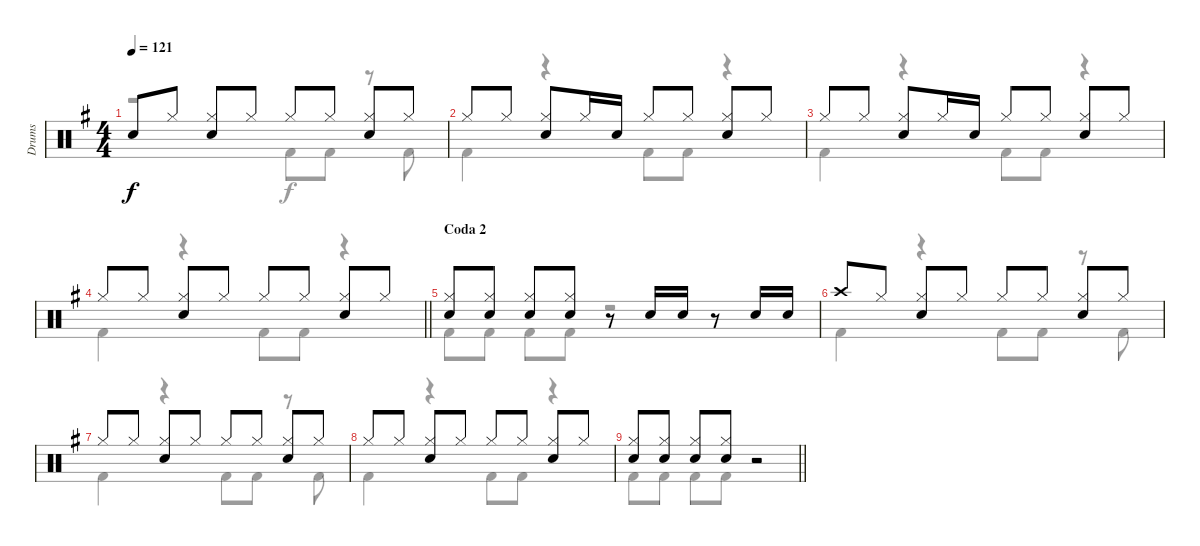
\track ("Drums" "Drums") {instrument percussion}
\staff {score}
\articulation defaults
\voice
\ts (4 4)
\tempo 121
\clef neutral
\ks g "Snare (hit)"{t}.8{dy f} "Hi-Hat (closed)".8
("Hi-Hat (closed)" "Snare (hit) 2").8 "Hi-Hat (closed)".8 "Hi-Hat (closed)".8 "Hi-Hat (closed)".8 ("Hi-Hat (closed)" "Snare (hit) 2").8 "Hi-Hat (closed)".8 |
"Hi-Hat (closed)".8 "Hi-Hat (closed)".8 ("Hi-Hat (closed)" "Snare (hit) 2").8 "Hi-Hat (closed)".16 "Snare (hit) 2".16 "Hi-Hat (closed)".8 "Hi-Hat (closed)".8 ("Hi-Hat (closed)" "Snare (hit) 2").8 "Hi-Hat (closed)".8 |
"Hi-Hat (closed)".8 "Hi-Hat (closed)".8 ("Hi-Hat (closed)" "Snare (hit) 2").8 "Hi-Hat (closed)".16 "Snare (hit) 2".16 "Hi-Hat (closed)".8 "Hi-Hat (closed)".8 ("Hi-Hat (closed)" "Snare (hit) 2").8 "Hi-Hat (closed)".8 |
\barLineRight lightlight "Hi-Hat (closed)".8 "Hi-Hat (closed)".8
("Hi-Hat (closed)" "Snare (hit) 2").8 "Hi-Hat (closed)".8 "Hi-Hat (closed)".8 "Hi-Hat (closed)".8 ("Hi-Hat (closed)" "Snare (hit) 2").8 "Hi-Hat (closed)".8 |
\section ("" "Coda 2")
("Hi-Hat (closed)" "Snare (hit) 2").8 ("Hi-Hat (closed)" "Snare (hit) 2").8 ("Hi-Hat (closed)" "Snare (hit) 2").8 ("Hi-Hat (closed)" "Snare (hit) 2").8 r.8 "Snare (hit) 2".16 "Snare (hit) 2".16 r.8 "Snare (hit) 2".16 "Snare (hit) 2".16 |
"Crash high (hit)".8 "Hi-Hat (closed)".8 ("Hi-Hat (closed)" "Snare (hit) 2").8 "Hi-Hat (closed)".8 "Hi-Hat (closed)".8 "Hi-Hat (closed)".8 ("Hi-Hat (closed)" "Snare (hit) 2").8 "Hi-Hat (closed)".8 |
"Hi-Hat (closed)".8 "Hi-Hat (closed)".8 ("Hi-Hat (closed)" "Snare (hit) 2").8 "Hi-Hat (closed)".8 "Hi-Hat (closed)".8 "Hi-Hat (closed)".8 ("Hi-Hat (closed)" "Snare (hit) 2").8 "Hi-Hat (closed)".8 |
"Hi-Hat (closed)".8 "Hi-Hat (closed)".8 ("Hi-Hat (closed)" "Snare (hit) 2").8 "Hi-Hat (closed)".8 "Hi-Hat (closed)".8 "Hi-Hat (closed)".8 ("Hi-Hat (closed)" "Snare (hit) 2").8 "Hi-Hat (closed)".8 |
\barLineRight lightlight
("Hi-Hat (closed)" "Snare (hit) 2").8 ("Hi-Hat (closed)" "Snare (hit) 2").8 ("Hi-Hat (closed)" "Snare (hit) 2").8 ("Hi-Hat (closed)" "Snare (hit) 2").8 r.2
\voice
\clef neutral
\ottava regular
\simile none
\ks g
r.2{dy f} "Kick (hit) 2".8 "Kick (hit) 2".8 r.8 "Kick (hit) 2".8 |
"Kick (hit) 2".4 r.4 "Kick (hit) 2".8 "Kick (hit) 2".8 r.4 |
"Kick (hit) 2".4 r.4 "Kick (hit) 2".8 "Kick (hit) 2".8 r.4 |
\barLineRight lightlight "Kick (hit) 2".4
r.4 "Kick (hit) 2".8 "Kick (hit) 2".8 r.4 |
"Kick (hit) 2".8 "Kick (hit) 2".8 "Kick (hit) 2".8 "Kick (hit) 2".8 r.2 |
"Kick (hit) 2".4 r.4 "Kick (hit) 2".8 "Kick (hit) 2".8 r.8 "Kick (hit) 2".8 |
"Kick (hit) 2".4 r.4 "Kick (hit) 2".8 "Kick (hit) 2".8 r.8 "Kick (hit) 2".8 |
"Kick (hit) 2".4 r.4 "Kick (hit) 2".8 "Kick (hit) 2".8 r.4 |
\barLineRight lightlight "Kick (hit) 2".8 "Kick (hit) 2".8 "Kick (hit) 2".8 "Kick (hit) 2".8
r.2
